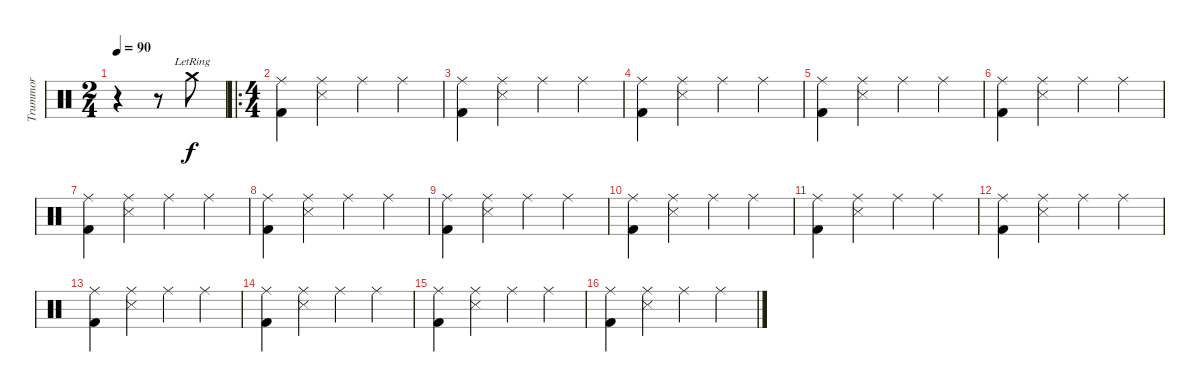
\track ("Trummor" "Trummor") {instrument percussion}
\staff {score}
\articulation defaults
\ts (2 4)
\tempo 90
\clef neutral
\ks c
r.4{dy f} r.8 "Crash medium (hit)"{lr}.8 |
\ro
\ts (4 4)
("Kick (hit) 2" "Ride (middle)").4 ("Snare (side stick) 3" "Ride (middle)").4 "Ride (middle)".4 "Ride (middle)".4 |
("Kick (hit) 2" "Ride (middle)").4 ("Snare (side stick) 3" "Ride (middle)").4 "Ride (middle)".4 "Ride (middle)".4 |
("Kick (hit) 2" "Ride (middle)").4 ("Snare (side stick) 3" "Ride (middle)").4 "Ride (middle)".4 "Ride (middle)".4 |
("Kick (hit) 2" "Ride (middle)").4 ("Snare (side stick) 3" "Ride (middle)").4 "Ride (middle)".4 "Ride (middle)".4 |
("Kick (hit) 2" "Ride (middle)").4 ("Snare (side stick) 3" "Ride (middle)").4 "Ride (middle)".4 "Ride (middle)".4 |
("Kick (hit) 2" "Ride (middle)").4 ("Snare (side stick) 3" "Ride (middle)").4 "Ride (middle)".4 "Ride (middle)".4 |
("Kick (hit) 2" "Ride (middle)").4 ("Snare (side stick) 3" "Ride (middle)").4 "Ride (middle)".4 "Ride (middle)".4 |
("Kick (hit) 2" "Ride (middle)").4 ("Snare (side stick) 3" "Ride (middle)").4 "Ride (middle)".4 "Ride (middle)".4 |
("Kick (hit) 2" "Ride (middle)").4 ("Snare (side stick) 3" "Ride (middle)").4 "Ride (middle)".4 "Ride (middle)".4 |
("Kick (hit) 2" "Ride (middle)").4 ("Snare (side stick) 3" "Ride (middle)").4 "Ride (middle)".4 "Ride (middle)".4 |
("Kick (hit) 2" "Ride (middle)").4 ("Snare (side stick) 3" "Ride (middle)").4 "Ride (middle)".4 "Ride (middle)".4 |
("Kick (hit) 2" "Ride (middle)").4 ("Snare (side stick) 3" "Ride (middle)").4 "Ride (middle)".4 "Ride (middle)".4 |
("Kick (hit) 2" "Ride (middle)").4 ("Snare (side stick) 3" "Ride (middle)").4 "Ride (middle)".4 "Ride (middle)".4 |
("Kick (hit) 2" "Ride (middle)").4 ("Snare (side stick) 3" "Ride (middle)").4 "Ride (middle)".4 "Ride (middle)".4 |
("Kick (hit) 2" "Ride (middle)").4 ("Snare (side stick) 3" "Ride (middle)").4 "Ride (middle)".4 "Ride (middle)".4
